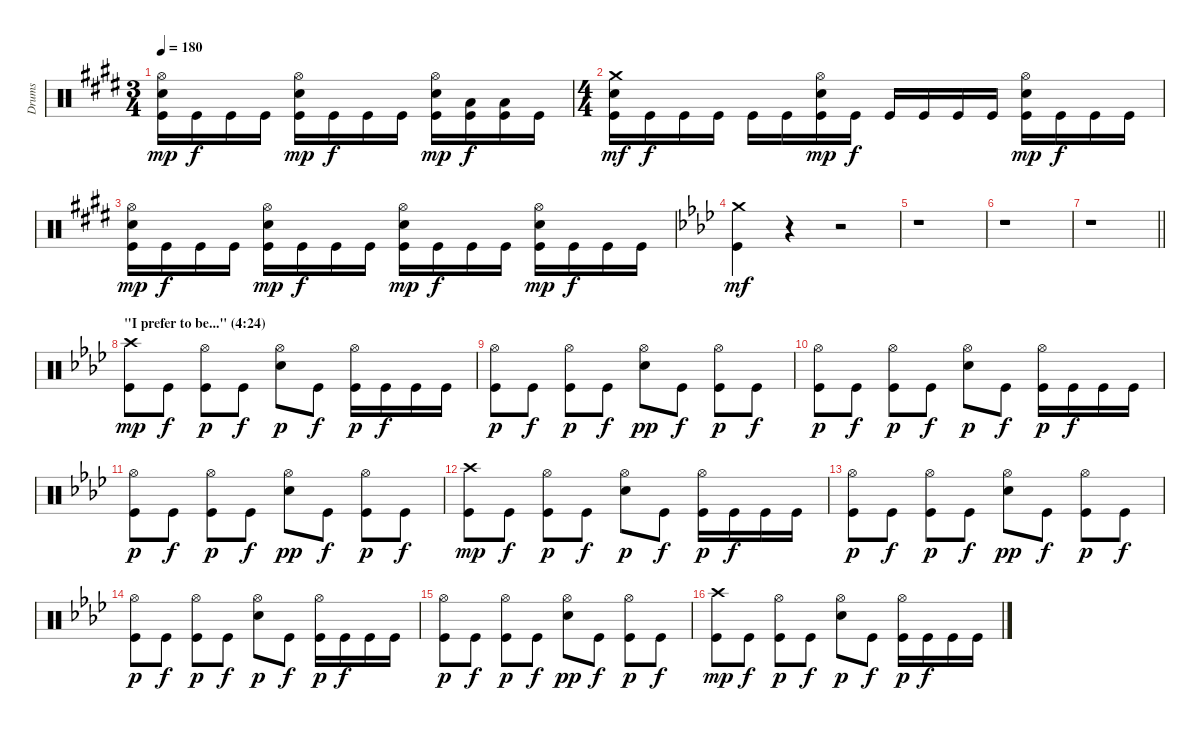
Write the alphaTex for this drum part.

\track ("Drums" "Drums") {instrument percussion}
\staff {score}
\articulation defaults
\ts (3 4)
\tempo 180
\clef neutral
\ks c#minor
("Hi-Hat (open)" "Snare (hit) 2" "Kick (hit)").16{dy mp} "Kick (hit)".16{dy f} "Kick (hit)".16 "Kick (hit)".16 ("Hi-Hat (open)" "Snare (hit) 2" "Kick (hit)").16{dy mp} "Kick (hit)".16{dy f} "Kick (hit)".16 "Kick (hit)".16 ("Hi-Hat (open)" "Snare (hit) 2" "Kick (hit)").16{dy mp} ("Low Floor Tom (hit)" "Kick (hit)").16{dy f} ("Low Floor Tom (hit)" "Kick (hit)").16 "Kick (hit)".16 |
\ts (4 4)
("Crash medium (hit)" "Snare (hit) 2" "Kick (hit)").16{dy mf} "Kick (hit)".16{dy f} "Kick (hit)".16 "Kick (hit)".16 "Kick (hit)".16 "Kick (hit)".16 ("Hi-Hat (open)" "Snare (hit) 2" "Kick (hit)").16{dy mp} "Kick (hit)".16{dy f} "Kick (hit)".16 "Kick (hit)".16 "Kick (hit)".16 "Kick (hit)".16 ("Hi-Hat (open)" "Snare (hit) 2" "Kick (hit)").16{dy mp} "Kick (hit)".16{dy f} "Kick (hit)".16 "Kick (hit)".16 |
("Hi-Hat (open)" "Snare (hit) 2" "Kick (hit)").16{dy mp} "Kick (hit)".16{dy f} "Kick (hit)".16 "Kick (hit)".16 ("Hi-Hat (open)" "Snare (hit) 2" "Kick (hit)").16{dy mp} "Kick (hit)".16{dy f} "Kick (hit)".16 "Kick (hit)".16 ("Hi-Hat (open)" "Snare (hit) 2" "Kick (hit)").16{dy mp} "Kick (hit)".16{dy f} "Kick (hit)".16 "Kick (hit)".16 ("Hi-Hat (open)" "Snare (hit) 2" "Kick (hit)").16{dy mp} "Kick (hit)".16{dy f} "Kick (hit)".16 "Kick (hit)".16 |
\ks fminor
("Crash medium (hit)" "Kick (hit)").4{dy mf} r.4 r.2 |
r.1 |
r.1 |
\barLineRight lightlight
r.1 |
\section ("" "\"I prefer to be...\" (4:24)")
("Crash high (hit)" "Kick (hit)").8{dy mp} "Kick (hit)".8{dy f} ("Hi-Hat (open)" "Kick (hit)").8{dy p} "Kick (hit)".8{dy f} ("Hi-Hat (open)" "Snare (hit) 2").8{dy p} "Kick (hit)".8{dy f} ("Hi-Hat (open)" "Kick (hit)").16{dy p} "Kick (hit)".16{dy f} "Kick (hit)".16 "Kick (hit)".16 |
("Hi-Hat (open)" "Kick (hit)").8{dy p} "Kick (hit)".8{dy f} ("Hi-Hat (open)" "Kick (hit)").8{dy p} "Kick (hit)".8{dy f} ("Hi-Hat (open)" "Snare (hit) 2").8{dy pp} "Kick (hit)".8{dy f} ("Hi-Hat (open)" "Kick (hit)").8{dy p} "Kick (hit)".8{dy f} |
("Hi-Hat (open)" "Kick (hit)").8{dy p} "Kick (hit)".8{dy f} ("Hi-Hat (open)" "Kick (hit)").8{dy p} "Kick (hit)".8{dy f} ("Hi-Hat (open)" "Snare (hit) 2").8{dy p} "Kick (hit)".8{dy f} ("Hi-Hat (open)" "Kick (hit)").16{dy p} "Kick (hit)".16{dy f} "Kick (hit)".16 "Kick (hit)".16 |
("Hi-Hat (open)" "Kick (hit)").8{dy p} "Kick (hit)".8{dy f} ("Hi-Hat (open)" "Kick (hit)").8{dy p} "Kick (hit)".8{dy f} ("Hi-Hat (open)" "Snare (hit) 2").8{dy pp} "Kick (hit)".8{dy f} ("Hi-Hat (open)" "Kick (hit)").8{dy p} "Kick (hit)".8{dy f} |
("Crash high (hit)" "Kick (hit)").8{dy mp} "Kick (hit)".8{dy f} ("Hi-Hat (open)" "Kick (hit)").8{dy p} "Kick (hit)".8{dy f} ("Hi-Hat (open)" "Snare (hit) 2").8{dy p} "Kick (hit)".8{dy f} ("Hi-Hat (open)" "Kick (hit)").16{dy p} "Kick (hit)".16{dy f} "Kick (hit)".16 "Kick (hit)".16 |
("Hi-Hat (open)" "Kick (hit)").8{dy p} "Kick (hit)".8{dy f} ("Hi-Hat (open)" "Kick (hit)").8{dy p} "Kick (hit)".8{dy f} ("Hi-Hat (open)" "Snare (hit) 2").8{dy pp} "Kick (hit)".8{dy f} ("Hi-Hat (open)" "Kick (hit)").8{dy p} "Kick (hit)".8{dy f} |
("Hi-Hat (open)" "Kick (hit)").8{dy p} "Kick (hit)".8{dy f} ("Hi-Hat (open)" "Kick (hit)").8{dy p} "Kick (hit)".8{dy f} ("Hi-Hat (open)" "Snare (hit) 2").8{dy p} "Kick (hit)".8{dy f} ("Hi-Hat (open)" "Kick (hit)").16{dy p} "Kick (hit)".16{dy f} "Kick (hit)".16 "Kick (hit)".16 |
("Hi-Hat (open)" "Kick (hit)").8{dy p} "Kick (hit)".8{dy f} ("Hi-Hat (open)" "Kick (hit)").8{dy p} "Kick (hit)".8{dy f} ("Hi-Hat (open)" "Snare (hit) 2").8{dy pp} "Kick (hit)".8{dy f} ("Hi-Hat (open)" "Kick (hit)").8{dy p} "Kick (hit)".8{dy f} |
("Crash high (hit)" "Kick (hit)").8{dy mp} "Kick (hit)".8{dy f} ("Hi-Hat (open)" "Kick (hit)").8{dy p} "Kick (hit)".8{dy f} ("Hi-Hat (open)" "Snare (hit) 2").8{dy p} "Kick (hit)".8{dy f} ("Hi-Hat (open)" "Kick (hit)").16{dy p} "Kick (hit)".16{dy f} "Kick (hit)".16 "Kick (hit)".16
